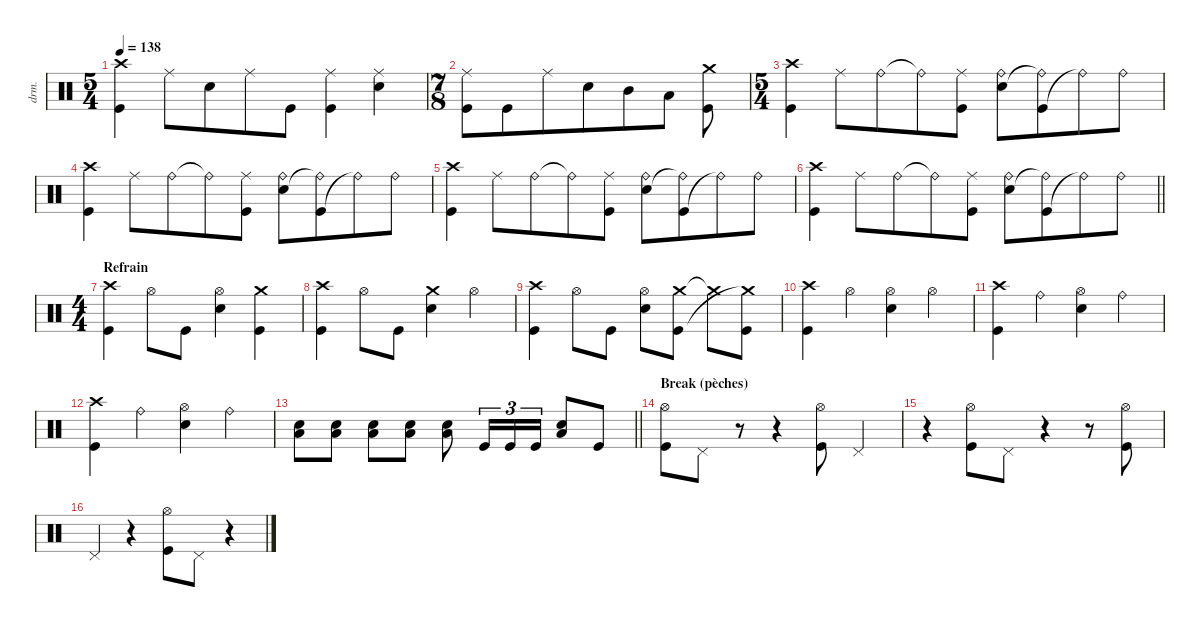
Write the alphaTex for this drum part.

\defaultSystemsLayout 4
\hideDynamics
\bracketExtendMode nobrackets
\track ("Percussions" "drm.") {instrument percussion}
\staff {score}
\articulation defaults
\ts (5 4)
\beaming (8 6 4)
\tempo 138
\clef neutral
\ks aminor
("Crash high (hit)" "Kick (hit)").4{dy f} "Ride (middle)".8 "Snare (hit) 2".8 "Ride (middle)".8 "Kick (hit)".8 ("Ride (middle)" "Kick (hit)").4 ("Ride (middle)" "Snare (hit) 2").4 |
\ts (7 8)
\beaming (8 6 4)
("Ride (middle)" "Kick (hit)").8 "Kick (hit)".8 "Ride (middle)".8 "Snare (hit) 2".8 "Mid Tom (hit)".8 "Low Tom (hit)".8 ("Kick (hit)" "Crash medium (hit)").8 |
\ts (5 4)
\beaming (8 6 4)
("Crash high (hit)" "Kick (hit)").4 "Ride (middle)".8 "Ride (bell)".8 "Ride (bell)"{t}.8 ("Ride (middle)" "Kick (hit)").8 ("Ride (bell)" "Snare (hit) 2").8 ("Kick (hit)" "Ride (bell)"{t}).8 "Ride (bell)"{t}.8 "Ride (bell)".8 |
("Crash high (hit)" "Kick (hit)").4 "Ride (middle)".8 "Ride (bell)".8 "Ride (bell)"{t}.8 ("Ride (middle)" "Kick (hit)").8 ("Ride (bell)" "Snare (hit) 2").8 ("Kick (hit)" "Ride (bell)"{t}).8 "Ride (bell)"{t}.8 "Ride (bell)".8 |
("Crash high (hit)" "Kick (hit)").4 "Ride (middle)".8 "Ride (bell)".8 "Ride (bell)"{t}.8 ("Ride (middle)" "Kick (hit)").8 ("Ride (bell)" "Snare (hit) 2").8 ("Kick (hit)" "Ride (bell)"{t}).8 "Ride (bell)"{t}.8 "Ride (bell)".8 |
\barLineRight lightlight
("Crash high (hit)" "Kick (hit)").4 "Ride (middle)".8 "Ride (bell)".8 "Ride (bell)"{t}.8 ("Ride (middle)" "Kick (hit)").8 ("Ride (bell)" "Snare (hit) 2").8 ("Kick (hit)" "Ride (bell)"{t}).8 "Ride (bell)"{t}.8 "Ride (bell)".8 |
\ts (4 4)
\beaming (8 2 2 2 2)
\section ("" "Refrain")
("Kick (hit)" "Crash high (hit)").4 "Hi-Hat (open)".8 "Kick (hit)".8 ("Hi-Hat (open)" "Snare (hit) 2").4 ("Crash medium (hit)" "Kick (hit)").4 |
("Kick (hit)" "Crash high (hit)").4 "Hi-Hat (open)".8 "Kick (hit)".8 ("Crash medium (hit)" "Snare (hit) 2").4 "Hi-Hat (open)".4 |
("Kick (hit)" "Crash high (hit)").4 "Hi-Hat (open)".8 "Kick (hit)".8 ("Hi-Hat (open)" "Snare (hit) 2").8 ("Crash medium (hit)" "Kick (hit)").8 "Crash medium (hit)"{t}.8 ("Kick (hit)" "Crash medium (hit)"{t}).8 |
("Kick (hit)" "Crash high (hit)").4 "Hi-Hat (open)".4 ("Hi-Hat (open)" "Snare (hit) 2").4 "Hi-Hat (open)".4 |
("Kick (hit)" "Crash high (hit)").4 "Ride (bell)".4 ("Hi-Hat (open)" "Snare (hit) 2").4 "Ride (bell)".4 |
("Kick (hit)" "Crash high (hit)").4 "Ride (bell)".4 ("Hi-Hat (open)" "Snare (hit) 2").4 "Ride (bell)".4 |
\barLineRight lightlight
("Snare (hit) 2" "Low Tom (hit)").8 ("Snare (hit) 2" "Low Tom (hit)").8 ("Snare (hit) 2" "Low Tom (hit)").8 ("Snare (hit) 2" "Low Tom (hit)").8 ("Snare (hit) 2" "Low Tom (hit)").8 "Kick (hit)".16{tu (3 2)} "Kick (hit)".16{tu (3 2)} "Kick (hit)".16{tu (3 2)} ("Snare (hit) 2" "Low Tom (hit)").8 "Kick (hit)".8 |
\section ("" "Break (pèches)")
("Hi-Hat (open)" "Kick (hit)").8 "Pedal Hi-Hat (hit)".8 r.8 r.4 ("Hi-Hat (open)" "Kick (hit)").8 "Pedal Hi-Hat (hit)".4 |
r.4 ("Hi-Hat (open)" "Kick (hit)").8 "Pedal Hi-Hat (hit)".8 r.4 r.8 ("Kick (hit)" "Hi-Hat (open)").8 |
"Pedal Hi-Hat (hit)".4 r.4 ("Hi-Hat (open)" "Kick (hit)").8 "Pedal Hi-Hat (hit)".8 r.4
